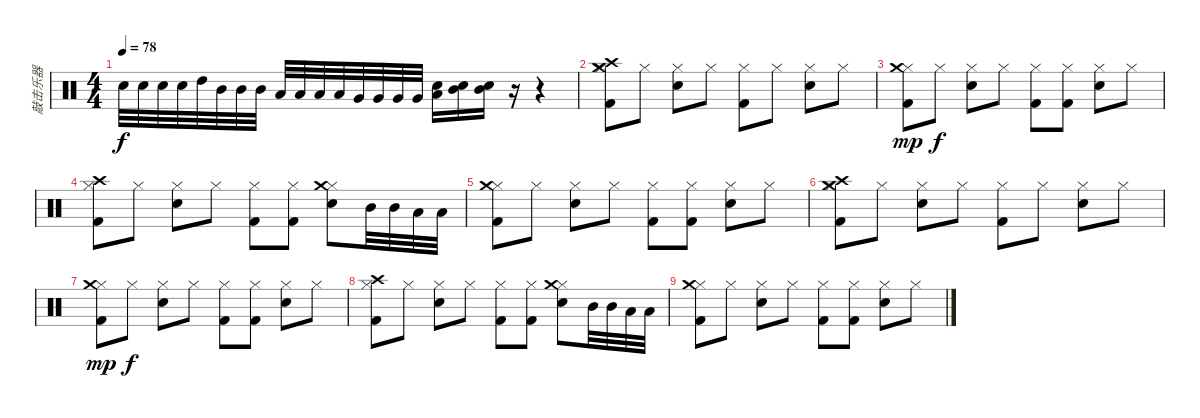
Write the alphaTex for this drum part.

\track ("敲击乐器" "敲击乐器") {instrument percussion}
\staff {score}
\articulation defaults
\ts (4 4)
\tempo 78
\clef neutral
\ks c "Snare (hit) 2".32{dy f} "Snare (hit) 2".32 "Snare (hit) 2".32 "Snare (hit) 2".32 "High Tom (hit)".32 "Mid Tom (hit)".32 "Mid Tom (hit)".32 "Mid Tom (hit)".32 "Low Tom (hit)".32 "Low Tom (hit)".32 "Low Tom (hit)".32 "Low Tom (hit)".32 "Very Low Tom (hit)".32 "Very Low Tom (hit)".32 "Very Low Tom (hit)".32 "Very Low Tom (hit)".32
("Low Tom (hit)" "Snare (hit) 2").16 ("Mid Tom (hit)" "Snare (hit) 2").16 ("Mid Tom (hit)" "Snare (hit) 2").16 r.16 r.4 |
("Hi-Hat (closed)" "Kick (hit) 2" "Crash medium (hit)" "Crash high (hit)").8 "Hi-Hat (closed)".8 ("Hi-Hat (closed)" "Snare (hit) 2").8 "Hi-Hat (closed)".8 ("Hi-Hat (closed)" "Kick (hit) 2").8 "Hi-Hat (closed)".8 ("Hi-Hat (closed)" "Snare (hit) 2").8 "Hi-Hat (closed)".8 |
("Hi-Hat (closed)" "Kick (hit) 2" "Crash medium (hit)").8{dy mp} "Hi-Hat (closed)".8{dy f} ("Hi-Hat (closed)" "Snare (hit) 2").8 "Hi-Hat (closed)".8 ("Hi-Hat (closed)" "Kick (hit) 2").8 ("Hi-Hat (closed)" "Kick (hit) 2").8 ("Hi-Hat (closed)" "Snare (hit) 2").8 "Hi-Hat (closed)".8 |
("Hi-Hat (closed)" "Kick (hit) 2" "Crash high (hit)").8 "Hi-Hat (closed)".8 ("Hi-Hat (closed)" "Snare (hit) 2").8 "Hi-Hat (closed)".8 ("Hi-Hat (closed)" "Kick (hit) 2").8 ("Hi-Hat (closed)" "Kick (hit) 2").8 ("Hi-Hat (closed)" "Snare (hit) 2" "Crash medium (hit)").8 "Mid Tom (hit)".32 "Mid Tom (hit)".32 "Low Tom (hit)".32 "Low Tom (hit)".32 |
("Hi-Hat (closed)" "Kick (hit) 2" "Crash medium (hit)").8 "Hi-Hat (closed)".8 ("Hi-Hat (closed)" "Snare (hit) 2").8 "Hi-Hat (closed)".8 ("Hi-Hat (closed)" "Kick (hit) 2").8 ("Hi-Hat (closed)" "Kick (hit) 2").8 ("Hi-Hat (closed)" "Snare (hit) 2").8 "Hi-Hat (closed)".8 |
("Hi-Hat (closed)" "Kick (hit) 2" "Crash medium (hit)" "Crash high (hit)").8 "Hi-Hat (closed)".8 ("Hi-Hat (closed)" "Snare (hit) 2").8 "Hi-Hat (closed)".8 ("Hi-Hat (closed)" "Kick (hit) 2").8 "Hi-Hat (closed)".8 ("Hi-Hat (closed)" "Snare (hit) 2").8 "Hi-Hat (closed)".8 |
("Hi-Hat (closed)" "Kick (hit) 2" "Crash medium (hit)").8{dy mp} "Hi-Hat (closed)".8{dy f} ("Hi-Hat (closed)" "Snare (hit) 2").8 "Hi-Hat (closed)".8 ("Hi-Hat (closed)" "Kick (hit) 2").8 ("Hi-Hat (closed)" "Kick (hit) 2").8 ("Hi-Hat (closed)" "Snare (hit) 2").8 "Hi-Hat (closed)".8 |
("Hi-Hat (closed)" "Kick (hit) 2" "Crash high (hit)").8 "Hi-Hat (closed)".8 ("Hi-Hat (closed)" "Snare (hit) 2").8 "Hi-Hat (closed)".8 ("Hi-Hat (closed)" "Kick (hit) 2").8 ("Hi-Hat (closed)" "Kick (hit) 2").8 ("Hi-Hat (closed)" "Snare (hit) 2" "Crash medium (hit)").8 "Mid Tom (hit)".32 "Mid Tom (hit)".32 "Low Tom (hit)".32 "Low Tom (hit)".32 |
("Hi-Hat (closed)" "Kick (hit) 2" "Crash medium (hit)").8 "Hi-Hat (closed)".8 ("Hi-Hat (closed)" "Snare (hit) 2").8 "Hi-Hat (closed)".8 ("Hi-Hat (closed)" "Kick (hit) 2").8 ("Hi-Hat (closed)" "Kick (hit) 2").8 ("Hi-Hat (closed)" "Snare (hit) 2").8 "Hi-Hat (closed)".8
